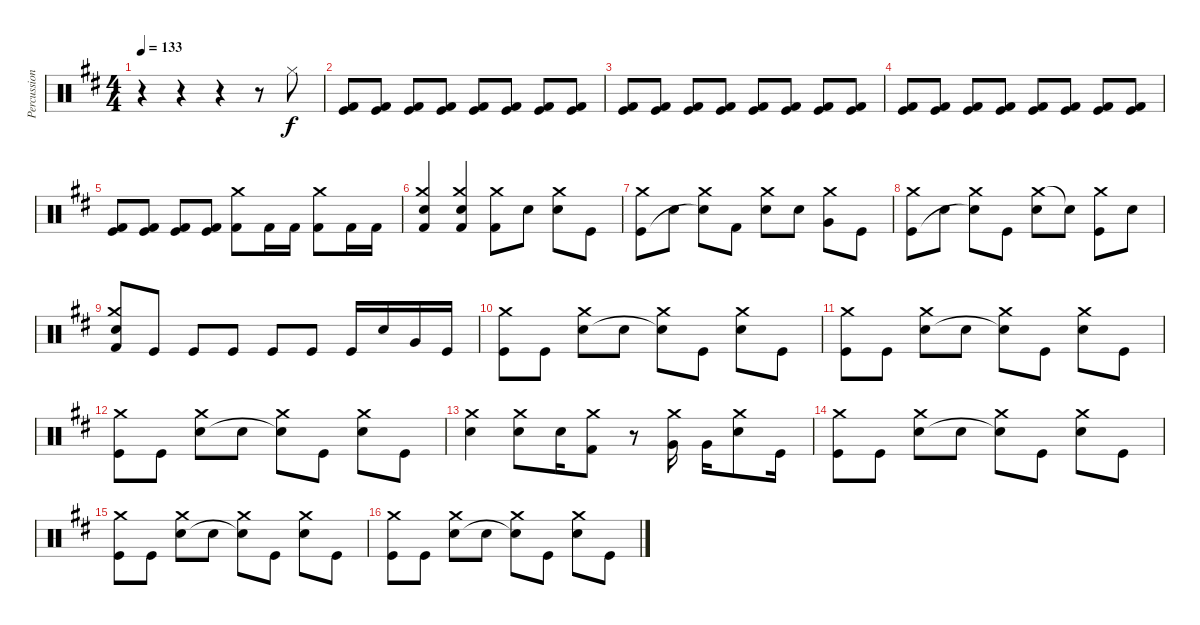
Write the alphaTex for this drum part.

\track ("Percussion" "Percussion") {instrument percussion}
\staff {score}
\articulation defaults
\ts (4 4)
\tempo 133
\clef neutral
\ks d
r.4{dy f} r.4 r.4 r.8 "Hi-Hat (closed)".8 |
("Kick (hit)" "Kick (hit) 2").8 ("Kick (hit)" "Kick (hit) 2").8 ("Kick (hit)" "Kick (hit) 2").8 ("Kick (hit)" "Kick (hit) 2").8 ("Kick (hit)" "Kick (hit) 2").8 ("Kick (hit)" "Kick (hit) 2").8 ("Kick (hit)" "Kick (hit) 2").8 ("Kick (hit)" "Kick (hit) 2").8 |
("Kick (hit)" "Kick (hit) 2").8 ("Kick (hit)" "Kick (hit) 2").8 ("Kick (hit)" "Kick (hit) 2").8 ("Kick (hit)" "Kick (hit) 2").8 ("Kick (hit)" "Kick (hit) 2").8 ("Kick (hit)" "Kick (hit) 2").8 ("Kick (hit)" "Kick (hit) 2").8 ("Kick (hit)" "Kick (hit) 2").8 |
("Kick (hit)" "Kick (hit) 2").8 ("Kick (hit)" "Kick (hit) 2").8 ("Kick (hit)" "Kick (hit) 2").8 ("Kick (hit)" "Kick (hit) 2").8 ("Kick (hit)" "Kick (hit) 2").8 ("Kick (hit)" "Kick (hit) 2").8 ("Kick (hit)" "Kick (hit) 2").8 ("Kick (hit)" "Kick (hit) 2").8 |
("Kick (hit)" "Kick (hit) 2").8 ("Kick (hit)" "Kick (hit) 2").8 ("Kick (hit)" "Kick (hit) 2").8 ("Kick (hit)" "Kick (hit) 2").8 ("Crash medium (hit)" "Kick (hit) 2").8 "Kick (hit) 2".16 "Kick (hit) 2".16 ("Crash medium (hit)" "Kick (hit) 2").8 "Kick (hit) 2".16 "Kick (hit) 2".16 |
("Crash medium (hit)" "Electric Snare (hit)" "Kick (hit) 2").4 ("Crash medium (hit)" "Electric Snare (hit)" "Kick (hit) 2").4 ("Crash medium (hit)" "Kick (hit) 2").8 "Electric Snare (hit)".8 ("Crash medium (hit)" "Snare (hit) 2").8 "Kick (hit)".8 |
("Crash medium (hit)" "Kick (hit)").8 "Electric Snare (hit)".8 ("Crash medium (hit)" "Snare (hit)"{t}).8 "Kick (hit) 2".8 ("Crash medium (hit)" "Snare (hit) 2").8 "Electric Snare (hit)".8 ("Crash medium (hit)" "Very Low Tom (hit)").8 "Kick (hit)".8 |
("Crash medium (hit)" "Kick (hit)").8 "Snare (hit) 2".8 ("Crash medium (hit)" "Snare (hit)"{t}).8 "Kick (hit)".8 ("Crash medium (hit)" "Snare (hit) 2").8 "Snare (hit)"{t}.8 ("Crash medium (hit)" "Kick (hit)").8 "Snare (hit) 2".8 |
("Crash medium (hit)" "Snare (hit) 2" "Kick (hit) 2").8 "Kick (hit)".8 "Kick (hit)".8 "Kick (hit)".8 "Kick (hit)".8 "Kick (hit)".8 "Kick (hit)".16 "Snare (hit) 2".16 "Very Low Tom (hit)".16 "Kick (hit)".16 |
("Crash medium (hit)" "Kick (hit)").8 "Kick (hit)".8 ("Crash medium (hit)" "Electric Snare (hit)").8 "Snare (hit) 2".8 ("Crash medium (hit)" "Snare (hit)"{t}).8 "Kick (hit)".8 ("Crash medium (hit)" "Snare (hit) 2").8 "Kick (hit)".8 |
("Crash medium (hit)" "Kick (hit)").8 "Kick (hit)".8 ("Crash medium (hit)" "Electric Snare (hit)").8 "Snare (hit) 2".8 ("Crash medium (hit)" "Snare (hit)"{t}).8 "Kick (hit)".8 ("Crash medium (hit)" "Snare (hit) 2").8 "Kick (hit)".8 |
("Crash medium (hit)" "Kick (hit)").8 "Kick (hit)".8 ("Crash medium (hit)" "Electric Snare (hit)").8 "Snare (hit) 2".8 ("Crash medium (hit)" "Snare (hit)"{t}).8 "Kick (hit)".8 ("Crash medium (hit)" "Snare (hit) 2").8 "Kick (hit)".8 |
("Crash medium (hit)" "Snare (hit) 2").4 ("Crash medium (hit)" "Electric Snare (hit)").8 "Electric Snare (hit)".16 ("Crash medium (hit)" "Kick (hit) 2").8 r.8 ("Crash medium (hit)" "Very Low Tom (hit)").16 "Very Low Tom (hit)".16 ("Crash medium (hit)" "Snare (hit) 2").8 "Kick (hit)".16 |
("Crash medium (hit)" "Kick (hit)").8 "Kick (hit)".8 ("Crash medium (hit)" "Electric Snare (hit)").8 "Snare (hit) 2".8 ("Crash medium (hit)" "Snare (hit)"{t}).8 "Kick (hit)".8 ("Crash medium (hit)" "Snare (hit) 2").8 "Kick (hit)".8 |
("Crash medium (hit)" "Kick (hit)").8 "Kick (hit)".8 ("Crash medium (hit)" "Electric Snare (hit)").8 "Snare (hit) 2".8 ("Crash medium (hit)" "Snare (hit)"{t}).8 "Kick (hit)".8 ("Crash medium (hit)" "Snare (hit) 2").8 "Kick (hit)".8 |
("Crash medium (hit)" "Kick (hit)").8 "Kick (hit)".8 ("Crash medium (hit)" "Electric Snare (hit)").8 "Snare (hit) 2".8 ("Crash medium (hit)" "Snare (hit)"{t}).8 "Kick (hit)".8 ("Crash medium (hit)" "Snare (hit) 2").8 "Kick (hit)".8
